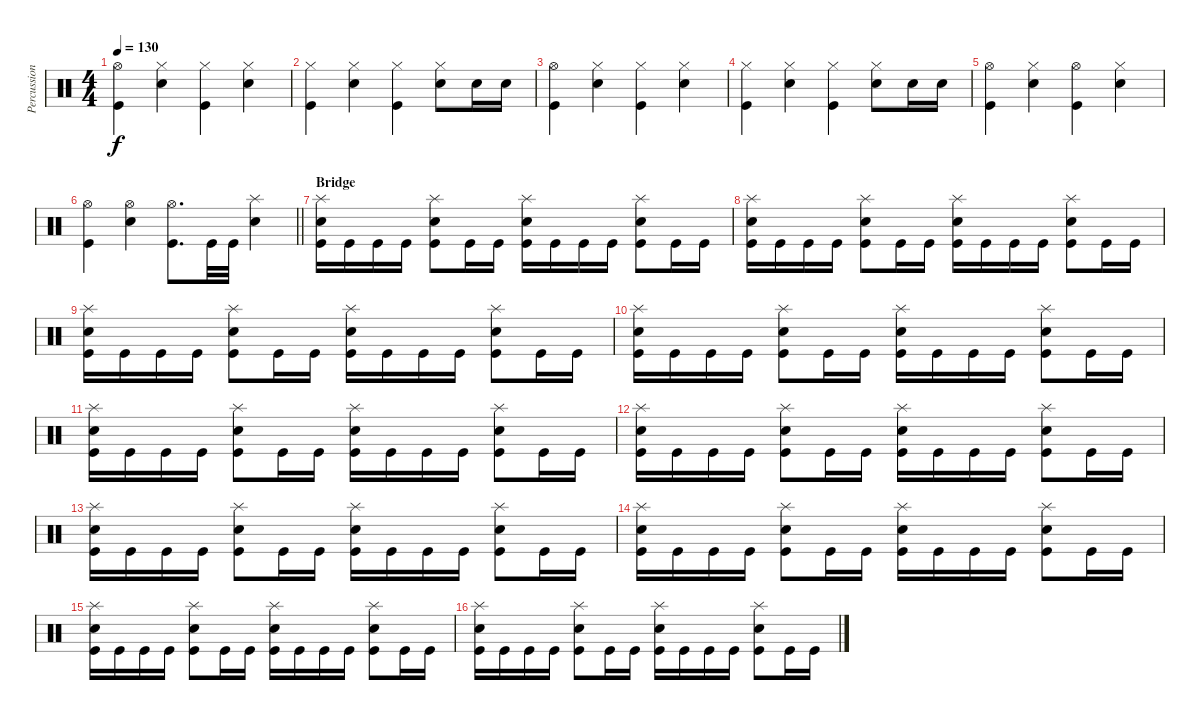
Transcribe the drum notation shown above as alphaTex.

\track ("Percussion" "Percussion") {instrument percussion}
\staff {score}
\articulation defaults
\ts (4 4)
\tempo 130
\clef neutral
\ks c
("Hi-Hat (open)" "Kick (hit)").4{dy f} ("Hi-Hat (closed)" "Electric Snare (hit)").4 ("Hi-Hat (closed)" "Kick (hit)").4 ("Hi-Hat (closed)" "Electric Snare (hit)").4 |
("Hi-Hat (closed)" "Kick (hit)").4 ("Hi-Hat (closed)" "Electric Snare (hit)").4 ("Hi-Hat (closed)" "Kick (hit)").4 ("Hi-Hat (closed)" "Electric Snare (hit)").8 "Electric Snare (hit)".16 "Electric Snare (hit)".16 |
("Hi-Hat (open)" "Kick (hit)").4 ("Hi-Hat (closed)" "Electric Snare (hit)").4 ("Hi-Hat (closed)" "Kick (hit)").4 ("Hi-Hat (closed)" "Electric Snare (hit)").4 |
("Hi-Hat (closed)" "Kick (hit)").4 ("Hi-Hat (closed)" "Electric Snare (hit)").4 ("Hi-Hat (closed)" "Kick (hit)").4 ("Hi-Hat (closed)" "Electric Snare (hit)").8 "Electric Snare (hit)".16 "Electric Snare (hit)".16 |
("Hi-Hat (open)" "Kick (hit)").4 ("Hi-Hat (closed)" "Electric Snare (hit)").4 ("Hi-Hat (open)" "Kick (hit)").4 ("Hi-Hat (closed)" "Electric Snare (hit)").4 |
\barLineRight lightlight
("Hi-Hat (open)" "Kick (hit)").4 ("Hi-Hat (open)" "Electric Snare (hit)").4 ("Hi-Hat (open)" "Kick (hit)").8{d} "Kick (hit)".32 "Kick (hit)".32 ("Splash (hit)" "Electric Snare (hit)").4 |
\section ("" "Bridge")
("Splash (hit)" "Electric Snare (hit)" "Kick (hit)").16 "Kick (hit)".16 "Kick (hit)".16 "Kick (hit)".16 ("Splash (hit)" "Electric Snare (hit)" "Kick (hit)").8 "Kick (hit)".16 "Kick (hit)".16 ("Splash (hit)" "Electric Snare (hit)" "Kick (hit)").16 "Kick (hit)".16 "Kick (hit)".16 "Kick (hit)".16 ("Splash (hit)" "Electric Snare (hit)" "Kick (hit)").8 "Kick (hit)".16 "Kick (hit)".16 |
("Splash (hit)" "Electric Snare (hit)" "Kick (hit)").16 "Kick (hit)".16 "Kick (hit)".16 "Kick (hit)".16 ("Splash (hit)" "Electric Snare (hit)" "Kick (hit)").8 "Kick (hit)".16 "Kick (hit)".16 ("Splash (hit)" "Electric Snare (hit)" "Kick (hit)").16 "Kick (hit)".16 "Kick (hit)".16 "Kick (hit)".16 ("Splash (hit)" "Electric Snare (hit)" "Kick (hit)").8 "Kick (hit)".16 "Kick (hit)".16 |
("Splash (hit)" "Electric Snare (hit)" "Kick (hit)").16 "Kick (hit)".16 "Kick (hit)".16 "Kick (hit)".16 ("Splash (hit)" "Electric Snare (hit)" "Kick (hit)").8 "Kick (hit)".16 "Kick (hit)".16 ("Splash (hit)" "Electric Snare (hit)" "Kick (hit)").16 "Kick (hit)".16 "Kick (hit)".16 "Kick (hit)".16 ("Splash (hit)" "Electric Snare (hit)" "Kick (hit)").8 "Kick (hit)".16 "Kick (hit)".16 |
("Splash (hit)" "Electric Snare (hit)" "Kick (hit)").16 "Kick (hit)".16 "Kick (hit)".16 "Kick (hit)".16 ("Splash (hit)" "Electric Snare (hit)" "Kick (hit)").8 "Kick (hit)".16 "Kick (hit)".16 ("Splash (hit)" "Electric Snare (hit)" "Kick (hit)").16 "Kick (hit)".16 "Kick (hit)".16 "Kick (hit)".16 ("Splash (hit)" "Electric Snare (hit)" "Kick (hit)").8 "Kick (hit)".16 "Kick (hit)".16 |
("Splash (hit)" "Electric Snare (hit)" "Kick (hit)").16 "Kick (hit)".16 "Kick (hit)".16 "Kick (hit)".16 ("Splash (hit)" "Electric Snare (hit)" "Kick (hit)").8 "Kick (hit)".16 "Kick (hit)".16 ("Splash (hit)" "Electric Snare (hit)" "Kick (hit)").16 "Kick (hit)".16 "Kick (hit)".16 "Kick (hit)".16 ("Splash (hit)" "Electric Snare (hit)" "Kick (hit)").8 "Kick (hit)".16 "Kick (hit)".16 |
("Splash (hit)" "Electric Snare (hit)" "Kick (hit)").16 "Kick (hit)".16 "Kick (hit)".16 "Kick (hit)".16 ("Splash (hit)" "Electric Snare (hit)" "Kick (hit)").8 "Kick (hit)".16 "Kick (hit)".16 ("Splash (hit)" "Electric Snare (hit)" "Kick (hit)").16 "Kick (hit)".16 "Kick (hit)".16 "Kick (hit)".16 ("Splash (hit)" "Electric Snare (hit)" "Kick (hit)").8 "Kick (hit)".16 "Kick (hit)".16 |
("Splash (hit)" "Electric Snare (hit)" "Kick (hit)").16 "Kick (hit)".16 "Kick (hit)".16 "Kick (hit)".16 ("Splash (hit)" "Electric Snare (hit)" "Kick (hit)").8 "Kick (hit)".16 "Kick (hit)".16 ("Splash (hit)" "Electric Snare (hit)" "Kick (hit)").16 "Kick (hit)".16 "Kick (hit)".16 "Kick (hit)".16 ("Splash (hit)" "Electric Snare (hit)" "Kick (hit)").8 "Kick (hit)".16 "Kick (hit)".16 |
("Splash (hit)" "Electric Snare (hit)" "Kick (hit)").16 "Kick (hit)".16 "Kick (hit)".16 "Kick (hit)".16 ("Splash (hit)" "Electric Snare (hit)" "Kick (hit)").8 "Kick (hit)".16 "Kick (hit)".16 ("Splash (hit)" "Electric Snare (hit)" "Kick (hit)").16 "Kick (hit)".16 "Kick (hit)".16 "Kick (hit)".16 ("Splash (hit)" "Electric Snare (hit)" "Kick (hit)").8 "Kick (hit)".16 "Kick (hit)".16 |
("Splash (hit)" "Electric Snare (hit)" "Kick (hit)").16 "Kick (hit)".16 "Kick (hit)".16 "Kick (hit)".16 ("Splash (hit)" "Electric Snare (hit)" "Kick (hit)").8 "Kick (hit)".16 "Kick (hit)".16 ("Splash (hit)" "Electric Snare (hit)" "Kick (hit)").16 "Kick (hit)".16 "Kick (hit)".16 "Kick (hit)".16 ("Splash (hit)" "Electric Snare (hit)" "Kick (hit)").8 "Kick (hit)".16 "Kick (hit)".16 |
("Splash (hit)" "Electric Snare (hit)" "Kick (hit)").16 "Kick (hit)".16 "Kick (hit)".16 "Kick (hit)".16 ("Splash (hit)" "Electric Snare (hit)" "Kick (hit)").8 "Kick (hit)".16 "Kick (hit)".16 ("Splash (hit)" "Electric Snare (hit)" "Kick (hit)").16 "Kick (hit)".16 "Kick (hit)".16 "Kick (hit)".16 ("Splash (hit)" "Electric Snare (hit)" "Kick (hit)").8 "Kick (hit)".16 "Kick (hit)".16
